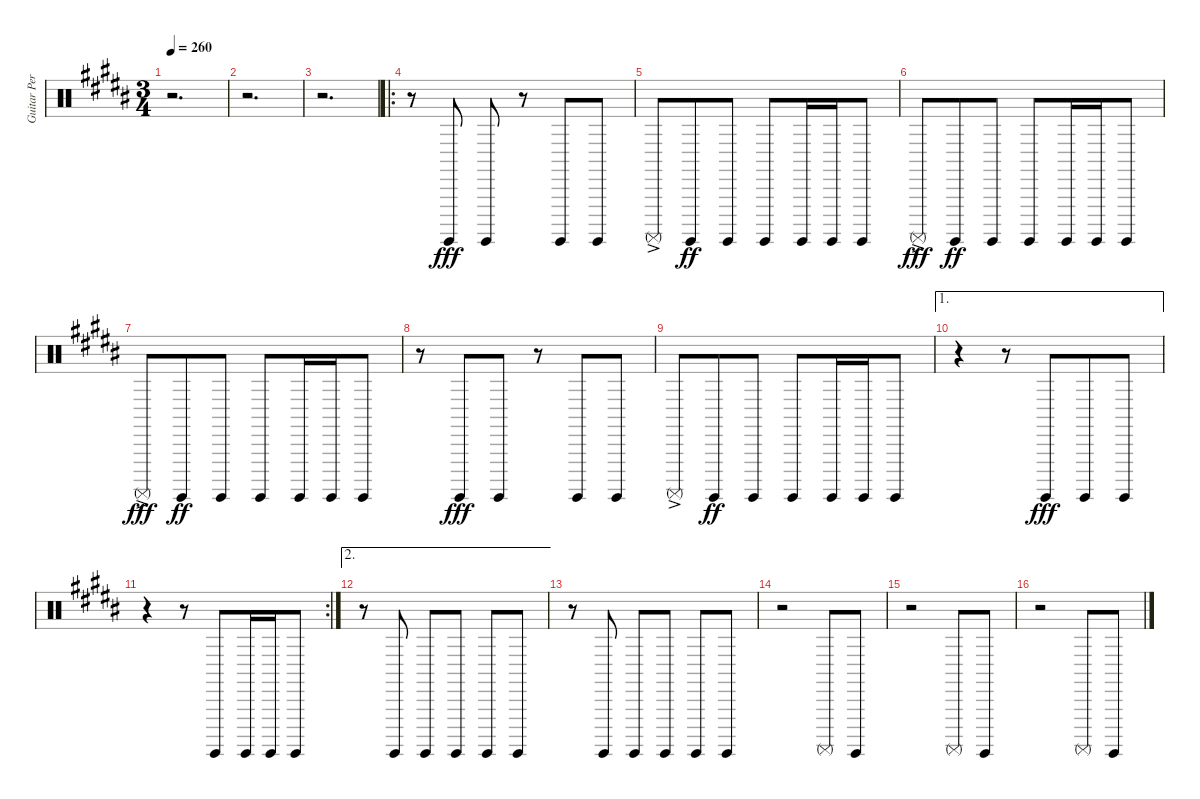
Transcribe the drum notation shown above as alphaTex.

\track ("Guitar Percussion Noises" "Guitar Per") {instrument percussion}
\staff {score}
\articulation defaults
\ts (3 4)
\tempo 260
\clef neutral
\ks b
r.2{d dy ff} |
r.2{d} |
r.2{d} |
\ro
r.8 "Surdo (hit)".8{dy fff} "Surdo (hit)".8 r.8 "Surdo (hit)".8 "Surdo (hit)".8 |
"Surdo (mute)"{ac}.8 "Surdo (hit)".8{dy ff beam merge} "Surdo (hit)".8{beam split} "Surdo (hit)".8{beam merge} "Surdo (hit)".16{beam merge} "Surdo (hit)".16 "Surdo (hit)".8 |
"Surdo (mute)"{ac}.8{dy fff} "Surdo (hit)".8{dy ff beam merge} "Surdo (hit)".8{beam split} "Surdo (hit)".8{beam merge} "Surdo (hit)".16{beam merge} "Surdo (hit)".16 "Surdo (hit)".8 |
"Surdo (mute)"{ac}.8{dy fff} "Surdo (hit)".8{dy ff beam merge} "Surdo (hit)".8{beam split} "Surdo (hit)".8{beam merge} "Surdo (hit)".16{beam merge} "Surdo (hit)".16 "Surdo (hit)".8 |
r.8 "Surdo (hit)".8{dy fff beam merge} "Surdo (hit)".8 r.8 "Surdo (hit)".8 "Surdo (hit)".8 |
"Surdo (mute)"{ac}.8 "Surdo (hit)".8{dy ff beam merge} "Surdo (hit)".8{beam split} "Surdo (hit)".8{beam merge} "Surdo (hit)".16{beam merge} "Surdo (hit)".16 "Surdo (hit)".8 |
\ae 1
r.4 r.8 "Surdo (hit)".8{dy fff beam merge} "Surdo (hit)".8 "Surdo (hit)".8 |
\rc 2
r.4 r.8 "Surdo (hit)".8{beam merge} "Surdo (hit)".16 "Surdo (hit)".16 "Surdo (hit)".8 |
\ae 2
r.8 "Surdo (hit)".8 "Surdo (hit)".8 "Surdo (hit)".8 "Surdo (hit)".8 "Surdo (hit)".8 |
r.8 "Surdo (hit)".8 "Surdo (hit)".8 "Surdo (hit)".8 "Surdo (hit)".8 "Surdo (hit)".8 |
r.2 "Surdo (mute)".8 "Surdo (hit)".8 |
r.2 "Surdo (mute)".8 "Surdo (hit)".8 |
r.2 "Surdo (mute)".8 "Surdo (hit)".8
